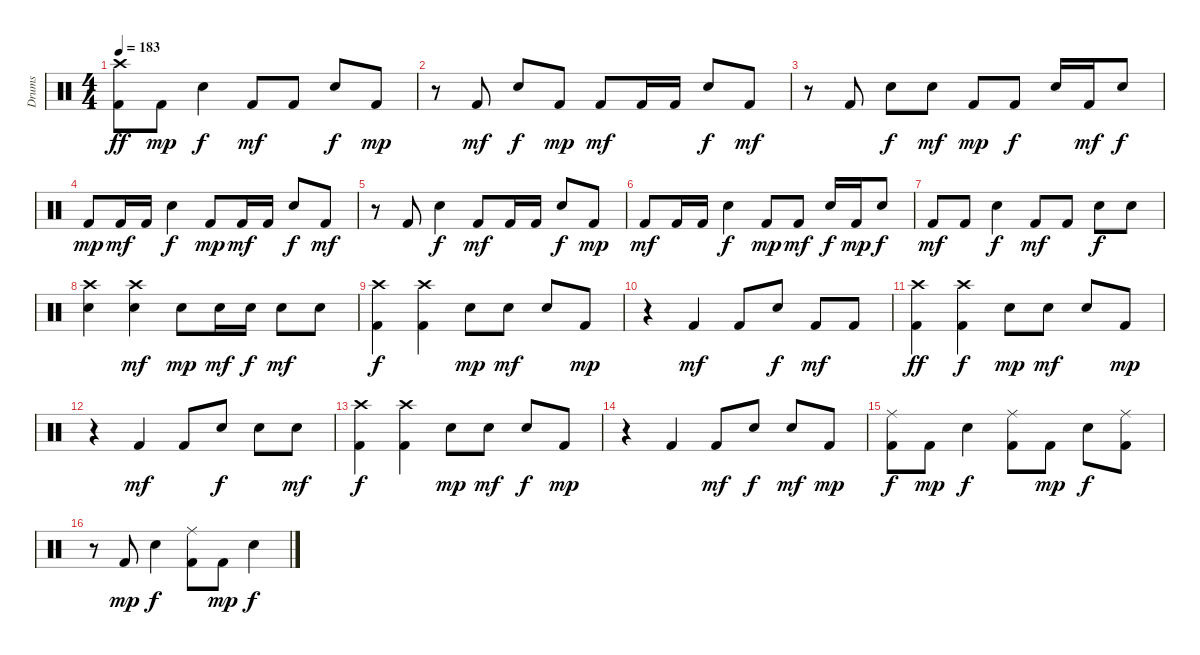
\track ("Drums" "Drums") {instrument percussion}
\staff {score}
\articulation defaults
\ts (4 4)
\tempo 183
\clef neutral
\ks c
("Kick (hit) 2" "Crash high (hit)").8{dy ff} "Kick (hit) 2".8{dy mp} "Snare (hit) 2".4{dy f} "Kick (hit) 2".8{dy mf} "Kick (hit) 2".8 "Snare (hit) 2".8{dy f} "Kick (hit) 2".8{dy mp} |
r.8 "Kick (hit) 2".8{dy mf} "Snare (hit) 2".8{dy f} "Kick (hit) 2".8{dy mp} "Kick (hit) 2".8{dy mf} "Kick (hit) 2".16 "Kick (hit) 2".16 "Snare (hit) 2".8{dy f} "Kick (hit) 2".8{dy mf} |
r.8 "Kick (hit) 2".8 "Snare (hit) 2".8{dy f} "Snare (hit) 2".8{dy mf} "Kick (hit) 2".8{dy mp} "Kick (hit) 2".8{dy f} "Snare (hit) 2".16 "Kick (hit) 2".16{dy mf} "Snare (hit) 2".8{dy f} |
"Kick (hit) 2".8{dy mp} "Kick (hit) 2".16{dy mf} "Kick (hit) 2".16 "Snare (hit) 2".4{dy f} "Kick (hit) 2".8{dy mp} "Kick (hit) 2".16{dy mf} "Kick (hit) 2".16 "Snare (hit) 2".8{dy f} "Kick (hit) 2".8{dy mf} |
r.8 "Kick (hit) 2".8 "Snare (hit) 2".4{dy f} "Kick (hit) 2".8{dy mf} "Kick (hit) 2".16 "Kick (hit) 2".16 "Snare (hit) 2".8{dy f} "Kick (hit) 2".8{dy mp} |
"Kick (hit) 2".8{dy mf} "Kick (hit) 2".16 "Kick (hit) 2".16 "Snare (hit) 2".4{dy f} "Kick (hit) 2".8{dy mp} "Kick (hit) 2".8{dy mf} "Snare (hit) 2".16{dy f} "Kick (hit) 2".16{dy mp} "Snare (hit) 2".8{dy f} |
"Kick (hit) 2".8{dy mf} "Kick (hit) 2".8 "Snare (hit) 2".4{dy f} "Kick (hit) 2".8{dy mf} "Kick (hit) 2".8 "Snare (hit) 2".8{dy f} "Snare (hit) 2".8 |
("Snare (hit) 2" "Crash high (hit)").4 ("Snare (hit) 2" "Crash high (hit)").4{dy mf} "Snare (hit) 2".8{dy mp} "Snare (hit) 2".16{dy mf} "Snare (hit) 2".16{dy f} "Snare (hit) 2".8{dy mf} "Snare (hit) 2".8 |
("Kick (hit) 2" "Crash high (hit)").4{dy f} ("Kick (hit) 2" "Crash high (hit)").4 "Snare (hit) 2".8{dy mp} "Snare (hit) 2".8{dy mf} "Snare (hit) 2".8 "Kick (hit) 2".8{dy mp} |
r.4 "Kick (hit) 2".4{dy mf} "Kick (hit) 2".8 "Snare (hit) 2".8{dy f} "Kick (hit) 2".8{dy mf} "Kick (hit) 2".8 |
("Kick (hit) 2" "Crash high (hit)").4{dy ff} ("Kick (hit) 2" "Crash high (hit)").4{dy f} "Snare (hit) 2".8{dy mp} "Snare (hit) 2".8{dy mf} "Snare (hit) 2".8 "Kick (hit) 2".8{dy mp} |
r.4 "Kick (hit) 2".4{dy mf} "Kick (hit) 2".8 "Snare (hit) 2".8{dy f} "Snare (hit) 2".8 "Snare (hit) 2".8{dy mf} |
("Kick (hit) 2" "Crash high (hit)").4{dy f} ("Kick (hit) 2" "Crash high (hit)").4 "Snare (hit) 2".8{dy mp} "Snare (hit) 2".8{dy mf} "Snare (hit) 2".8{dy f} "Kick (hit) 2".8{dy mp} |
r.4 "Kick (hit) 2".4 "Kick (hit) 2".8{dy mf} "Snare (hit) 2".8{dy f} "Snare (hit) 2".8{dy mf} "Kick (hit) 2".8{dy mp} |
("Kick (hit) 2" "Ride (middle)").8{dy f} "Kick (hit) 2".8{dy mp} "Snare (hit) 2".4{dy f} ("Kick (hit) 2" "Ride (middle)").8 "Kick (hit) 2".8{dy mp} "Snare (hit) 2".8{dy f} ("Kick (hit) 2" "Ride (middle)").8 |
r.8 "Kick (hit) 2".8{dy mp} "Snare (hit) 2".4{dy f} ("Kick (hit) 2" "Ride (middle)").8 "Kick (hit) 2".8{dy mp} "Snare (hit) 2".4{dy f}
